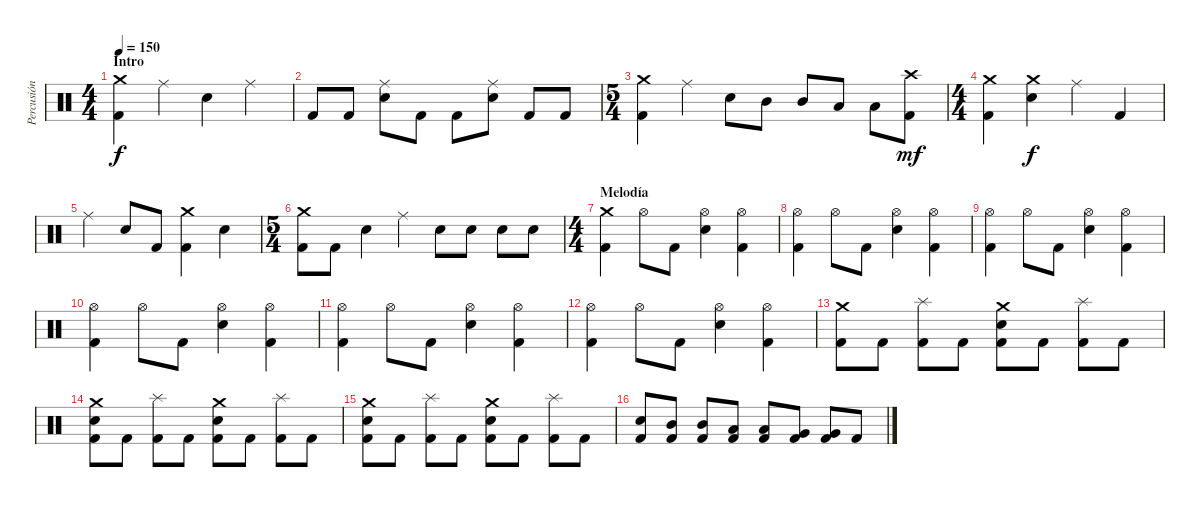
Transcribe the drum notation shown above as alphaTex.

\track ("Percusión" "Percusión") {instrument percussion}
\staff {score}
\articulation defaults
\ts (4 4)
\section ("" "Intro")
\tempo 150
\clef neutral
\ks c
("Crash medium (hit)" "Kick (hit) 2").4{dy f} "Ride (middle)".4 "Snare (hit) 2".4 "Ride (middle)".4 |
"Kick (hit) 2".8 "Kick (hit) 2".8 ("Ride (middle)" "Snare (hit) 2").8 "Kick (hit) 2".8 "Kick (hit) 2".8 ("Ride (middle)" "Snare (hit) 2").8 "Kick (hit) 2".8 "Kick (hit) 2".8 |
\ts (5 4)
("Crash medium (hit)" "Kick (hit) 2").4 "Ride (middle)".4 "Snare (hit) 2".8 "Mid Tom (hit)".8 "Mid Tom (hit)".8 "Low Tom (hit)".8 "Low Tom (hit)".8 ("Crash high (hit)" "Kick (hit) 2").8{dy mf} |
\ts (4 4)
("Crash medium (hit)" "Kick (hit) 2").4 ("Crash medium (hit)" "Snare (hit) 2").4{dy f} "Ride (middle)".4 "Kick (hit) 2".4 |
"Ride (middle)".4 "Snare (hit) 2".8 "Kick (hit) 2".8 ("Crash medium (hit)" "Kick (hit) 2").4 "Snare (hit) 2".4 |
\ts (5 4)
("Crash medium (hit)" "Kick (hit) 2").8 "Kick (hit) 2".8 "Snare (hit) 2".4 "Ride (middle)".4 "Snare (hit) 2".8 "Snare (hit) 2".8 "Snare (hit) 2".8 "Snare (hit) 2".8 |
\ts (4 4)
\section ("" "Melodía")
("Crash medium (hit)" "Kick (hit) 2").4 "Hi-Hat (open)".8 "Kick (hit) 2".8 ("Hi-Hat (open)" "Snare (hit) 2").4 ("Hi-Hat (open)" "Kick (hit) 2").4 |
("Hi-Hat (open)" "Kick (hit) 2").4 "Hi-Hat (open)".8 "Kick (hit) 2".8 ("Hi-Hat (open)" "Snare (hit) 2").4 ("Hi-Hat (open)" "Kick (hit) 2").4 |
("Hi-Hat (open)" "Kick (hit) 2").4 "Hi-Hat (open)".8 "Kick (hit) 2".8 ("Hi-Hat (open)" "Snare (hit) 2").4 ("Hi-Hat (open)" "Kick (hit) 2").4 |
("Hi-Hat (open)" "Kick (hit) 2").4 "Hi-Hat (open)".8 "Kick (hit) 2".8 ("Hi-Hat (open)" "Snare (hit) 2").4 ("Hi-Hat (open)" "Kick (hit) 2").4 |
("Hi-Hat (open)" "Kick (hit) 2").4 "Hi-Hat (open)".8 "Kick (hit) 2".8 ("Hi-Hat (open)" "Snare (hit) 2").4 ("Hi-Hat (open)" "Kick (hit) 2").4 |
("Hi-Hat (open)" "Kick (hit) 2").4 "Hi-Hat (open)".8 "Kick (hit) 2".8 ("Hi-Hat (open)" "Snare (hit) 2").4 ("Hi-Hat (open)" "Kick (hit) 2").4 |
("Crash medium (hit)" "Kick (hit) 2").8 "Kick (hit) 2".8 ("Splash (hit)" "Kick (hit) 2").8 "Kick (hit) 2".8 ("Crash medium (hit)" "Kick (hit) 2" "Snare (hit) 2").8 "Kick (hit) 2".8 ("Splash (hit)" "Kick (hit) 2").8 "Kick (hit) 2".8 |
("Crash medium (hit)" "Kick (hit) 2" "Snare (hit) 2").8 "Kick (hit) 2".8 ("Splash (hit)" "Kick (hit) 2").8 "Kick (hit) 2".8 ("Crash medium (hit)" "Kick (hit) 2" "Snare (hit) 2").8 "Kick (hit) 2".8 ("Splash (hit)" "Kick (hit) 2").8 "Kick (hit) 2".8 |
("Crash medium (hit)" "Kick (hit) 2" "Snare (hit) 2").8 "Kick (hit) 2".8 ("Splash (hit)" "Kick (hit) 2").8 "Kick (hit) 2".8 ("Crash medium (hit)" "Kick (hit) 2" "Snare (hit) 2").8 "Kick (hit) 2".8 ("Splash (hit)" "Kick (hit) 2").8 "Kick (hit) 2".8 |
("Kick (hit) 2" "Snare (hit) 2").8 ("Kick (hit) 2" "Mid Tom (hit)").8 ("Kick (hit) 2" "Mid Tom (hit)").8 ("Kick (hit) 2" "Low Tom (hit)").8 ("Kick (hit) 2" "Low Tom (hit)").8 ("Kick (hit) 2" "Very Low Tom (hit)").8 ("Kick (hit) 2" "Very Low Tom (hit)").8 "Kick (hit) 2".8
